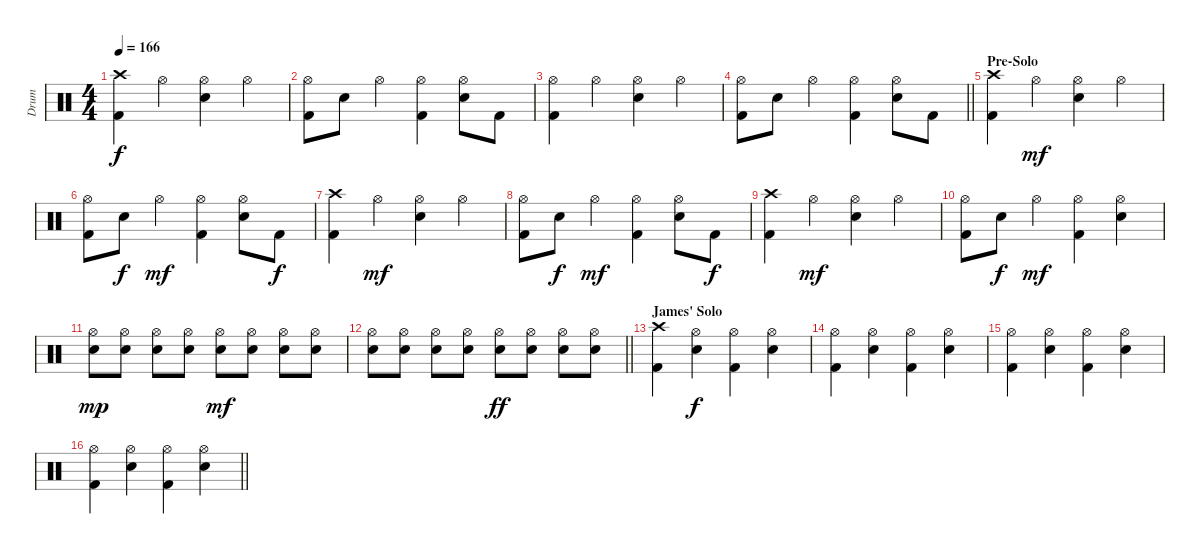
\track ("Drum" "Drum") {instrument percussion}
\staff {score}
\articulation defaults
\ts (4 4)
\tempo 166
\clef neutral
\ks c
("Crash high (hit)" "Kick (hit) 2").4{dy f} "Hi-Hat (open)".4 ("Hi-Hat (open)" "Snare (hit) 2").4 "Hi-Hat (open)".4 |
("Hi-Hat (open)" "Kick (hit) 2").8 "Snare (hit) 2".8 "Hi-Hat (open)".4 ("Hi-Hat (open)" "Kick (hit) 2").4 ("Hi-Hat (open)" "Snare (hit) 2").8 "Kick (hit) 2".8 |
("Hi-Hat (open)" "Kick (hit) 2").4 "Hi-Hat (open)".4 ("Hi-Hat (open)" "Snare (hit) 2").4 "Hi-Hat (open)".4 |
\barLineRight lightlight
("Hi-Hat (open)" "Kick (hit) 2").8 "Snare (hit) 2".8 "Hi-Hat (open)".4 ("Hi-Hat (open)" "Kick (hit) 2").4 ("Hi-Hat (open)" "Snare (hit) 2").8 "Kick (hit) 2".8 |
\section ("" "Pre-Solo")
("Crash high (hit)" "Kick (hit) 2").4 "Hi-Hat (open)".4{dy mf} ("Hi-Hat (open)" "Snare (hit) 2").4 "Hi-Hat (open)".4 |
("Hi-Hat (open)" "Kick (hit) 2").8 "Snare (hit) 2".8{dy f} "Hi-Hat (open)".4{dy mf} ("Hi-Hat (open)" "Kick (hit) 2").4 ("Hi-Hat (open)" "Snare (hit) 2").8 "Kick (hit) 2".8{dy f} |
("Crash high (hit)" "Kick (hit) 2").4 "Hi-Hat (open)".4{dy mf} ("Hi-Hat (open)" "Snare (hit) 2").4 "Hi-Hat (open)".4 |
("Hi-Hat (open)" "Kick (hit) 2").8 "Snare (hit) 2".8{dy f} "Hi-Hat (open)".4{dy mf} ("Hi-Hat (open)" "Kick (hit) 2").4 ("Hi-Hat (open)" "Snare (hit) 2").8 "Kick (hit) 2".8{dy f} |
("Crash high (hit)" "Kick (hit) 2").4 "Hi-Hat (open)".4{dy mf} ("Hi-Hat (open)" "Snare (hit) 2").4 "Hi-Hat (open)".4 |
("Hi-Hat (open)" "Kick (hit) 2").8 "Snare (hit) 2".8{dy f} "Hi-Hat (open)".4{dy mf} ("Hi-Hat (open)" "Kick (hit) 2").4 ("Hi-Hat (open)" "Snare (hit) 2").4 |
("Hi-Hat (open)" "Snare (hit) 2").8{dy mp} ("Hi-Hat (open)" "Snare (hit) 2").8 ("Hi-Hat (open)" "Snare (hit) 2").8 ("Hi-Hat (open)" "Snare (hit) 2").8 ("Hi-Hat (open)" "Snare (hit) 2").8{dy mf} ("Hi-Hat (open)" "Snare (hit) 2").8 ("Hi-Hat (open)" "Snare (hit) 2").8 ("Hi-Hat (open)" "Snare (hit) 2").8 |
\barLineRight lightlight
("Hi-Hat (open)" "Snare (hit) 2").8 ("Hi-Hat (open)" "Snare (hit) 2").8 ("Hi-Hat (open)" "Snare (hit) 2").8 ("Hi-Hat (open)" "Snare (hit) 2").8 ("Hi-Hat (open)" "Snare (hit) 2").8{dy ff} ("Hi-Hat (open)" "Snare (hit) 2").8 ("Hi-Hat (open)" "Snare (hit) 2").8 ("Hi-Hat (open)" "Snare (hit) 2").8 |
\section ("" "James' Solo")
("Crash high (hit)" "Kick (hit) 2").4 ("Hi-Hat (open)" "Snare (hit) 2").4{dy f} ("Hi-Hat (open)" "Kick (hit) 2").4 ("Hi-Hat (open)" "Snare (hit) 2").4 |
("Hi-Hat (open)" "Kick (hit) 2").4 ("Hi-Hat (open)" "Snare (hit) 2").4 ("Hi-Hat (open)" "Kick (hit) 2").4 ("Hi-Hat (open)" "Snare (hit) 2").4 |
("Hi-Hat (open)" "Kick (hit) 2").4 ("Hi-Hat (open)" "Snare (hit) 2").4 ("Hi-Hat (open)" "Kick (hit) 2").4 ("Hi-Hat (open)" "Snare (hit) 2").4 |
\barLineRight lightlight
("Hi-Hat (open)" "Kick (hit) 2").4 ("Hi-Hat (open)" "Snare (hit) 2").4 ("Hi-Hat (open)" "Kick (hit) 2").4 ("Hi-Hat (open)" "Snare (hit) 2").4
